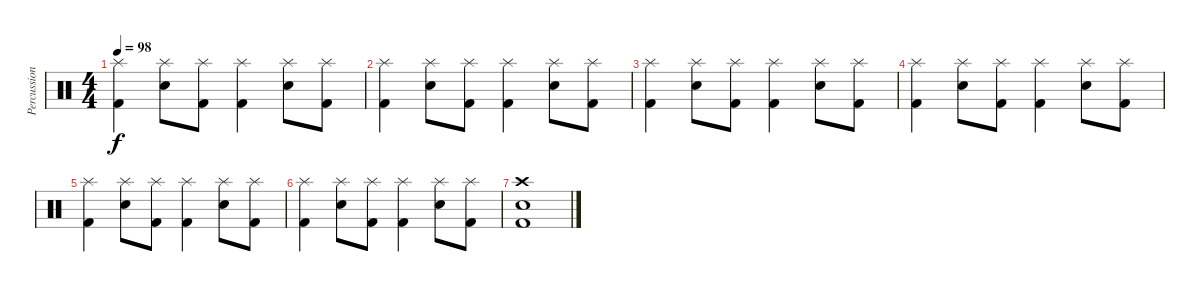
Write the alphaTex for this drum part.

\track ("Percussion" "Percussion") {instrument percussion}
\staff {score}
\articulation defaults
\ts (4 4)
\tempo 98
\clef neutral
\ks c
("Splash (hit)" "Kick (hit) 2").4{dy f} ("Splash (hit)" "Electric Snare (hit)").8 ("Splash (hit)" "Kick (hit) 2").8 ("Splash (hit)" "Kick (hit) 2").4 ("Splash (hit)" "Electric Snare (hit)").8 ("Splash (hit)" "Kick (hit) 2").8 |
("Splash (hit)" "Kick (hit) 2").4 ("Splash (hit)" "Electric Snare (hit)").8 ("Splash (hit)" "Kick (hit) 2").8 ("Splash (hit)" "Kick (hit) 2").4 ("Splash (hit)" "Electric Snare (hit)").8 ("Splash (hit)" "Kick (hit) 2").8 |
("Splash (hit)" "Kick (hit) 2").4 ("Splash (hit)" "Electric Snare (hit)").8 ("Splash (hit)" "Kick (hit) 2").8 ("Splash (hit)" "Kick (hit) 2").4 ("Splash (hit)" "Electric Snare (hit)").8 ("Splash (hit)" "Kick (hit) 2").8 |
("Splash (hit)" "Kick (hit) 2").4 ("Splash (hit)" "Electric Snare (hit)").8 ("Splash (hit)" "Kick (hit) 2").8 ("Splash (hit)" "Kick (hit) 2").4 ("Splash (hit)" "Electric Snare (hit)").8 ("Splash (hit)" "Kick (hit) 2").8 |
("Splash (hit)" "Kick (hit) 2").4 ("Splash (hit)" "Electric Snare (hit)").8 ("Splash (hit)" "Kick (hit) 2").8 ("Splash (hit)" "Kick (hit) 2").4 ("Splash (hit)" "Electric Snare (hit)").8 ("Splash (hit)" "Kick (hit) 2").8 |
("Splash (hit)" "Kick (hit) 2").4 ("Splash (hit)" "Electric Snare (hit)").8 ("Splash (hit)" "Kick (hit) 2").8 ("Splash (hit)" "Kick (hit) 2").4 ("Splash (hit)" "Electric Snare (hit)").8 ("Splash (hit)" "Kick (hit) 2").8 |
("Crash high (hit)" "Electric Snare (hit)" "Kick (hit) 2").1
